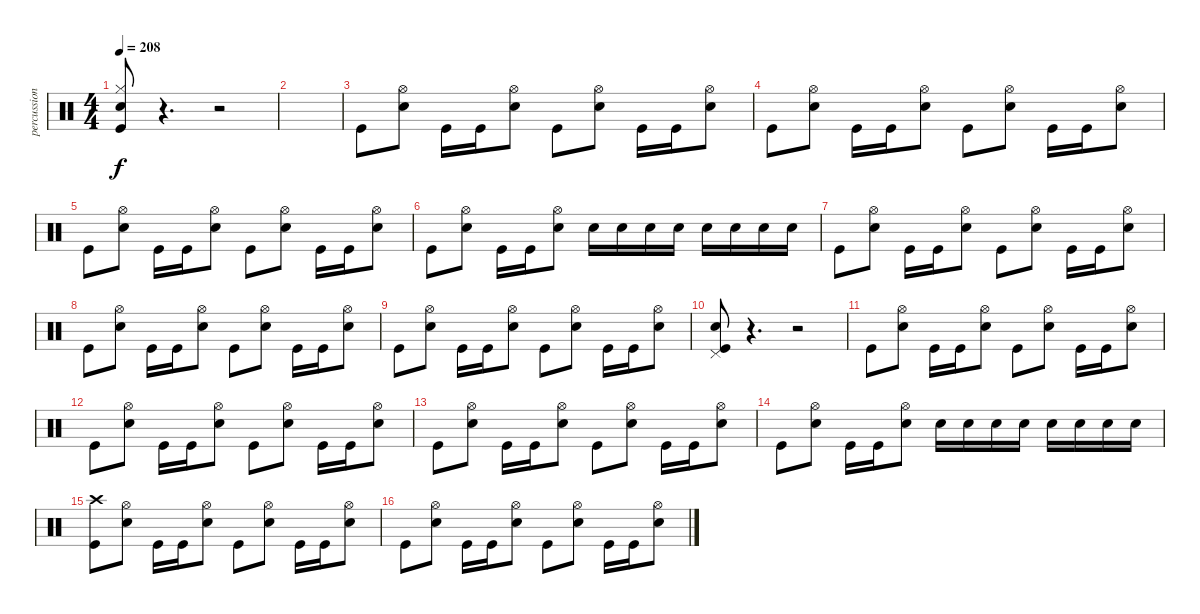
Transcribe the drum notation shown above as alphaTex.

\track ("percussion" "percussion") {instrument percussion}
\staff {score}
\articulation defaults
\ts (4 4)
\tempo 208
\clef neutral
\ks c
("Kick (hit)" "Hi-Hat (closed)" "Snare (hit) 2").8{dy f} r.4{d} r.2 |
|
"Kick (hit)".8 ("Electric Snare (hit)" "Hi-Hat (open)").8 "Kick (hit)".16 "Kick (hit)".16 ("Electric Snare (hit)" "Hi-Hat (open)").8 "Kick (hit)".8 ("Electric Snare (hit)" "Hi-Hat (open)").8 "Kick (hit)".16 "Kick (hit)".16 ("Electric Snare (hit)" "Hi-Hat (open)").8 |
"Kick (hit)".8 ("Electric Snare (hit)" "Hi-Hat (open)").8 "Kick (hit)".16 "Kick (hit)".16 ("Electric Snare (hit)" "Hi-Hat (open)").8 "Kick (hit)".8 ("Electric Snare (hit)" "Hi-Hat (open)").8 "Kick (hit)".16 "Kick (hit)".16 ("Electric Snare (hit)" "Hi-Hat (open)").8 |
"Kick (hit)".8 ("Electric Snare (hit)" "Hi-Hat (open)").8 "Kick (hit)".16 "Kick (hit)".16 ("Electric Snare (hit)" "Hi-Hat (open)").8 "Kick (hit)".8 ("Electric Snare (hit)" "Hi-Hat (open)").8 "Kick (hit)".16 "Kick (hit)".16 ("Electric Snare (hit)" "Hi-Hat (open)").8 |
"Kick (hit)".8 ("Electric Snare (hit)" "Hi-Hat (open)").8 "Kick (hit)".16 "Kick (hit)".16 ("Electric Snare (hit)" "Hi-Hat (open)").8 "Electric Snare (hit)".16 "Electric Snare (hit)".16 "Electric Snare (hit)".16 "Electric Snare (hit)".16 "Electric Snare (hit)".16 "Electric Snare (hit)".16 "Electric Snare (hit)".16 "Electric Snare (hit)".16 |
"Kick (hit)".8 ("Electric Snare (hit)" "Hi-Hat (open)").8 "Kick (hit)".16 "Kick (hit)".16 ("Electric Snare (hit)" "Hi-Hat (open)").8 "Kick (hit)".8 ("Electric Snare (hit)" "Hi-Hat (open)").8 "Kick (hit)".16 "Kick (hit)".16 ("Electric Snare (hit)" "Hi-Hat (open)").8 |
"Kick (hit)".8 ("Electric Snare (hit)" "Hi-Hat (open)").8 "Kick (hit)".16 "Kick (hit)".16 ("Electric Snare (hit)" "Hi-Hat (open)").8 "Kick (hit)".8 ("Electric Snare (hit)" "Hi-Hat (open)").8 "Kick (hit)".16 "Kick (hit)".16 ("Electric Snare (hit)" "Hi-Hat (open)").8 |
"Kick (hit)".8 ("Electric Snare (hit)" "Hi-Hat (open)").8 "Kick (hit)".16 "Kick (hit)".16 ("Electric Snare (hit)" "Hi-Hat (open)").8 "Kick (hit)".8 ("Electric Snare (hit)" "Hi-Hat (open)").8 "Kick (hit)".16 "Kick (hit)".16 ("Electric Snare (hit)" "Hi-Hat (open)").8 |
("Kick (hit)" "Pedal Hi-Hat (hit)" "Electric Snare (hit)").8 r.4{d} r.2 |
"Kick (hit)".8 ("Electric Snare (hit)" "Hi-Hat (open)").8 "Kick (hit)".16 "Kick (hit)".16 ("Electric Snare (hit)" "Hi-Hat (open)").8 "Kick (hit)".8 ("Electric Snare (hit)" "Hi-Hat (open)").8 "Kick (hit)".16 "Kick (hit)".16 ("Electric Snare (hit)" "Hi-Hat (open)").8 |
"Kick (hit)".8 ("Electric Snare (hit)" "Hi-Hat (open)").8 "Kick (hit)".16 "Kick (hit)".16 ("Electric Snare (hit)" "Hi-Hat (open)").8 "Kick (hit)".8 ("Electric Snare (hit)" "Hi-Hat (open)").8 "Kick (hit)".16 "Kick (hit)".16 ("Electric Snare (hit)" "Hi-Hat (open)").8 |
"Kick (hit)".8 ("Electric Snare (hit)" "Hi-Hat (open)").8 "Kick (hit)".16 "Kick (hit)".16 ("Electric Snare (hit)" "Hi-Hat (open)").8 "Kick (hit)".8 ("Electric Snare (hit)" "Hi-Hat (open)").8 "Kick (hit)".16 "Kick (hit)".16 ("Electric Snare (hit)" "Hi-Hat (open)").8 |
"Kick (hit)".8 ("Electric Snare (hit)" "Hi-Hat (open)").8 "Kick (hit)".16 "Kick (hit)".16 ("Electric Snare (hit)" "Hi-Hat (open)").8 "Electric Snare (hit)".16 "Electric Snare (hit)".16 "Electric Snare (hit)".16 "Electric Snare (hit)".16 "Electric Snare (hit)".16 "Electric Snare (hit)".16 "Electric Snare (hit)".16 "Electric Snare (hit)".16 |
("Kick (hit)" "Crash high (hit)").8 ("Electric Snare (hit)" "Hi-Hat (open)").8 "Kick (hit)".16 "Kick (hit)".16 ("Electric Snare (hit)" "Hi-Hat (open)").8 "Kick (hit)".8 ("Electric Snare (hit)" "Hi-Hat (open)").8 "Kick (hit)".16 "Kick (hit)".16 ("Electric Snare (hit)" "Hi-Hat (open)").8 |
"Kick (hit)".8 ("Electric Snare (hit)" "Hi-Hat (open)").8 "Kick (hit)".16 "Kick (hit)".16 ("Electric Snare (hit)" "Hi-Hat (open)").8 "Kick (hit)".8 ("Electric Snare (hit)" "Hi-Hat (open)").8 "Kick (hit)".16 "Kick (hit)".16 ("Electric Snare (hit)" "Hi-Hat (open)").8
